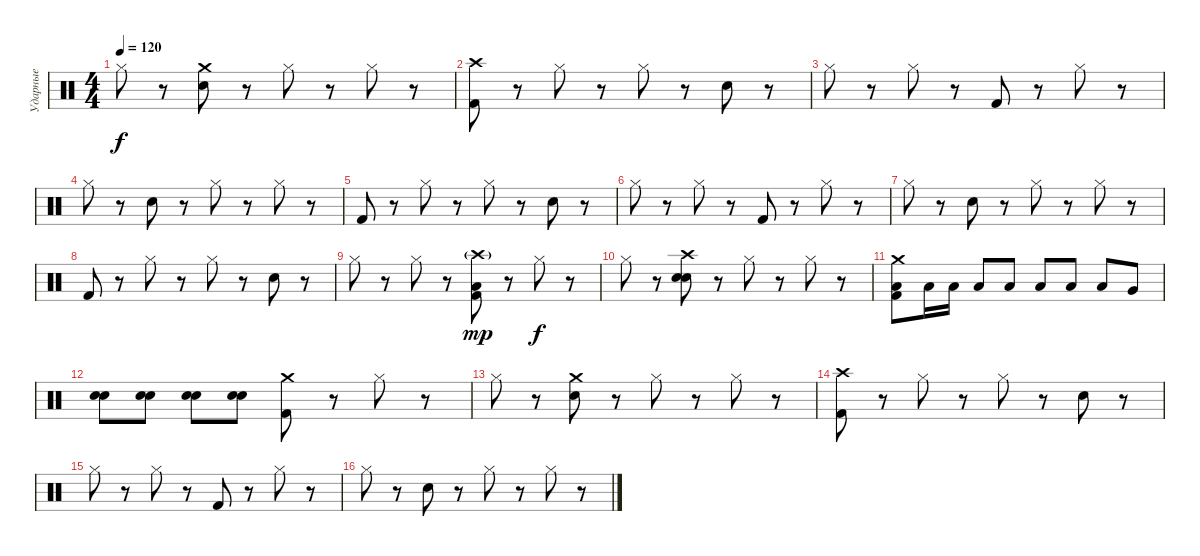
\track ("Ударные" "Ударные") {instrument percussion}
\staff {score}
\articulation defaults
\ts (4 4)
\tempo 120
\clef neutral
\ks c "Hi-Hat (closed)".8{dy f}
r.8 ("Crash medium (hit)" "Snare (hit) 2").8 r.8 "Hi-Hat (closed)".8 r.8 "Hi-Hat (closed)".8 r.8 |
("Crash high (hit)" "Kick (hit) 2").8 r.8 "Hi-Hat (closed)".8 r.8 "Hi-Hat (closed)".8 r.8 "Snare (hit) 2".8 r.8 |
"Hi-Hat (closed)".8 r.8 "Hi-Hat (closed)".8 r.8 "Kick (hit) 2".8 r.8 "Hi-Hat (closed)".8 r.8 |
"Hi-Hat (closed)".8 r.8 "Snare (hit) 2".8 r.8 "Hi-Hat (closed)".8 r.8 "Hi-Hat (closed)".8 r.8 |
"Kick (hit) 2".8 r.8 "Hi-Hat (closed)".8 r.8 "Hi-Hat (closed)".8 r.8 "Snare (hit) 2".8 r.8 |
"Hi-Hat (closed)".8 r.8 "Hi-Hat (closed)".8 r.8 "Kick (hit) 2".8 r.8 "Hi-Hat (closed)".8 r.8 |
"Hi-Hat (closed)".8 r.8 "Snare (hit) 2".8 r.8 "Hi-Hat (closed)".8 r.8 "Hi-Hat (closed)".8 r.8 |
"Kick (hit) 2".8 r.8 "Hi-Hat (closed)".8 r.8 "Hi-Hat (closed)".8 r.8 "Snare (hit) 2".8 r.8 |
"Hi-Hat (closed)".8 r.8 "Hi-Hat (closed)".8 r.8 ("Crash high (hit)"{g} "Kick (hit) 2" "Low Floor Tom (hit)").8{dy mp} r.8 "Hi-Hat (closed)".8{dy f} r.8 |
"Hi-Hat (closed)".8 r.8 ("Crash high (hit)" "Snare (hit) 2" "Electric Snare (hit)").8 r.8 "Hi-Hat (closed)".8 r.8 "Hi-Hat (closed)".8 r.8 |
("Crash medium (hit)" "Kick (hit) 2" "Low Floor Tom (hit)").8 "Low Tom (hit)".16 "Low Tom (hit)".16 "Low Tom (hit)".8 "Low Tom (hit)".8 "Low Tom (hit)".8 "Low Tom (hit)".8 "Low Tom (hit)".8 "Very Low Tom (hit)".8 |
("Electric Snare (hit)" "Snare (hit) 2").8 ("Electric Snare (hit)" "Snare (hit) 2").8 ("Electric Snare (hit)" "Snare (hit) 2").8 ("Electric Snare (hit)" "Snare (hit) 2").8 ("Crash medium (hit)" "Kick (hit) 2").8 r.8 "Hi-Hat (closed)".8 r.8 |
"Hi-Hat (closed)".8 r.8 ("Crash medium (hit)" "Snare (hit) 2").8 r.8 "Hi-Hat (closed)".8 r.8 "Hi-Hat (closed)".8 r.8 |
("Crash high (hit)" "Kick (hit) 2").8 r.8 "Hi-Hat (closed)".8 r.8 "Hi-Hat (closed)".8 r.8 "Snare (hit) 2".8 r.8 |
"Hi-Hat (closed)".8 r.8 "Hi-Hat (closed)".8 r.8 "Kick (hit) 2".8 r.8 "Hi-Hat (closed)".8 r.8 |
"Hi-Hat (closed)".8 r.8 "Snare (hit) 2".8 r.8 "Hi-Hat (closed)".8 r.8 "Hi-Hat (closed)".8 r.8
